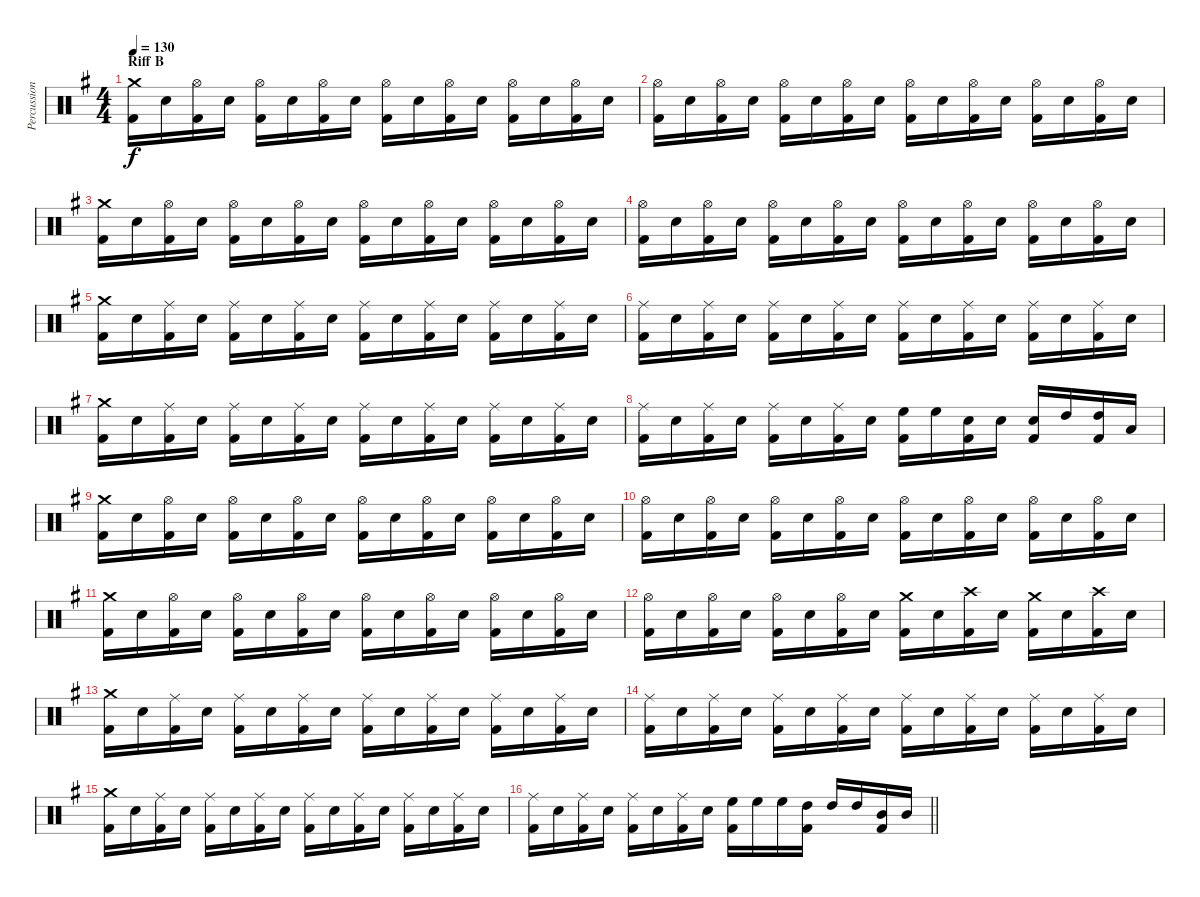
\track ("Percussion" "Percussion") {instrument percussion}
\staff {score}
\articulation defaults
\ts (4 4)
\section ("" "Riff B")
\tempo 130
\clef neutral
\ks eminor
("Crash medium (hit)" "Kick (hit) 2").16{dy f} "Snare (hit) 2".16 ("Hi-Hat (open)" "Kick (hit) 2").16 "Snare (hit) 2".16 ("Hi-Hat (open)" "Kick (hit) 2").16 "Snare (hit) 2".16 ("Hi-Hat (open)" "Kick (hit) 2").16 "Snare (hit) 2".16 ("Hi-Hat (open)" "Kick (hit) 2").16 "Snare (hit) 2".16 ("Hi-Hat (open)" "Kick (hit) 2").16 "Snare (hit) 2".16 ("Hi-Hat (open)" "Kick (hit) 2").16 "Snare (hit) 2".16 ("Hi-Hat (open)" "Kick (hit) 2").16 "Snare (hit) 2".16 |
("Hi-Hat (open)" "Kick (hit) 2").16 "Snare (hit) 2".16 ("Hi-Hat (open)" "Kick (hit) 2").16 "Snare (hit) 2".16 ("Hi-Hat (open)" "Kick (hit) 2").16 "Snare (hit) 2".16 ("Hi-Hat (open)" "Kick (hit) 2").16 "Snare (hit) 2".16 ("Hi-Hat (open)" "Kick (hit) 2").16 "Snare (hit) 2".16 ("Hi-Hat (open)" "Kick (hit) 2").16 "Snare (hit) 2".16 ("Hi-Hat (open)" "Kick (hit) 2").16 "Snare (hit) 2".16 ("Hi-Hat (open)" "Kick (hit) 2").16 "Snare (hit) 2".16 |
("Crash medium (hit)" "Kick (hit) 2").16 "Snare (hit) 2".16 ("Hi-Hat (open)" "Kick (hit) 2").16 "Snare (hit) 2".16 ("Hi-Hat (open)" "Kick (hit) 2").16 "Snare (hit) 2".16 ("Hi-Hat (open)" "Kick (hit) 2").16 "Snare (hit) 2".16 ("Hi-Hat (open)" "Kick (hit) 2").16 "Snare (hit) 2".16 ("Hi-Hat (open)" "Kick (hit) 2").16 "Snare (hit) 2".16 ("Hi-Hat (open)" "Kick (hit) 2").16 "Snare (hit) 2".16 ("Hi-Hat (open)" "Kick (hit) 2").16 "Snare (hit) 2".16 |
("Hi-Hat (open)" "Kick (hit) 2").16 "Snare (hit) 2".16 ("Hi-Hat (open)" "Kick (hit) 2").16 "Snare (hit) 2".16 ("Hi-Hat (open)" "Kick (hit) 2").16 "Snare (hit) 2".16 ("Hi-Hat (open)" "Kick (hit) 2").16 "Snare (hit) 2".16 ("Hi-Hat (open)" "Kick (hit) 2").16 "Snare (hit) 2".16 ("Hi-Hat (open)" "Kick (hit) 2").16 "Snare (hit) 2".16 ("Hi-Hat (open)" "Kick (hit) 2").16 "Snare (hit) 2".16 ("Hi-Hat (open)" "Kick (hit) 2").16 "Snare (hit) 2".16 |
("Crash medium (hit)" "Kick (hit) 2").16 "Snare (hit) 2".16 ("Ride (middle)" "Kick (hit) 2").16 "Snare (hit) 2".16 ("Ride (middle)" "Kick (hit) 2").16 "Snare (hit) 2".16 ("Ride (middle)" "Kick (hit) 2").16 "Snare (hit) 2".16 ("Ride (middle)" "Kick (hit) 2").16 "Snare (hit) 2".16 ("Ride (middle)" "Kick (hit) 2").16 "Snare (hit) 2".16 ("Ride (middle)" "Kick (hit) 2").16 "Snare (hit) 2".16 ("Ride (middle)" "Kick (hit) 2").16 "Snare (hit) 2".16 |
("Ride (middle)" "Kick (hit) 2").16 "Snare (hit) 2".16 ("Ride (middle)" "Kick (hit) 2").16 "Snare (hit) 2".16 ("Ride (middle)" "Kick (hit) 2").16 "Snare (hit) 2".16 ("Ride (middle)" "Kick (hit) 2").16 "Snare (hit) 2".16 ("Ride (middle)" "Kick (hit) 2").16 "Snare (hit) 2".16 ("Ride (middle)" "Kick (hit) 2").16 "Snare (hit) 2".16 ("Ride (middle)" "Kick (hit) 2").16 "Snare (hit) 2".16 ("Ride (middle)" "Kick (hit) 2").16 "Snare (hit) 2".16 |
("Crash medium (hit)" "Kick (hit) 2").16 "Snare (hit) 2".16 ("Ride (middle)" "Kick (hit) 2").16 "Snare (hit) 2".16 ("Ride (middle)" "Kick (hit) 2").16 "Snare (hit) 2".16 ("Ride (middle)" "Kick (hit) 2").16 "Snare (hit) 2".16 ("Ride (middle)" "Kick (hit) 2").16 "Snare (hit) 2".16 ("Ride (middle)" "Kick (hit) 2").16 "Snare (hit) 2".16 ("Ride (middle)" "Kick (hit) 2").16 "Snare (hit) 2".16 ("Ride (middle)" "Kick (hit) 2").16 "Snare (hit) 2".16 |
("Ride (middle)" "Kick (hit) 2").16 "Snare (hit) 2".16 ("Ride (middle)" "Kick (hit) 2").16 "Snare (hit) 2".16 ("Ride (middle)" "Kick (hit) 2").16 "Snare (hit) 2".16 ("Ride (middle)" "Kick (hit) 2").16 "Snare (hit) 2".16 ("High Floor Tom (hit)" "Kick (hit) 2").16 "High Floor Tom (hit)".16 ("Snare (hit) 2" "Kick (hit) 2").16 "Snare (hit) 2".16 ("Snare (hit) 2" "Kick (hit) 2").16 "High Tom (hit)".16 ("High Tom (hit)" "Kick (hit) 2").16 "Low Tom (hit)".16 |
("Crash medium (hit)" "Kick (hit) 2").16 "Snare (hit) 2".16 ("Hi-Hat (open)" "Kick (hit) 2").16 "Snare (hit) 2".16 ("Hi-Hat (open)" "Kick (hit) 2").16 "Snare (hit) 2".16 ("Hi-Hat (open)" "Kick (hit) 2").16 "Snare (hit) 2".16 ("Hi-Hat (open)" "Kick (hit) 2").16 "Snare (hit) 2".16 ("Hi-Hat (open)" "Kick (hit) 2").16 "Snare (hit) 2".16 ("Hi-Hat (open)" "Kick (hit) 2").16 "Snare (hit) 2".16 ("Hi-Hat (open)" "Kick (hit) 2").16 "Snare (hit) 2".16 |
("Hi-Hat (open)" "Kick (hit) 2").16 "Snare (hit) 2".16 ("Hi-Hat (open)" "Kick (hit) 2").16 "Snare (hit) 2".16 ("Hi-Hat (open)" "Kick (hit) 2").16 "Snare (hit) 2".16 ("Hi-Hat (open)" "Kick (hit) 2").16 "Snare (hit) 2".16 ("Hi-Hat (open)" "Kick (hit) 2").16 "Snare (hit) 2".16 ("Hi-Hat (open)" "Kick (hit) 2").16 "Snare (hit) 2".16 ("Hi-Hat (open)" "Kick (hit) 2").16 "Snare (hit) 2".16 ("Hi-Hat (open)" "Kick (hit) 2").16 "Snare (hit) 2".16 |
("Crash medium (hit)" "Kick (hit) 2").16 "Snare (hit) 2".16 ("Hi-Hat (open)" "Kick (hit) 2").16 "Snare (hit) 2".16 ("Hi-Hat (open)" "Kick (hit) 2").16 "Snare (hit) 2".16 ("Hi-Hat (open)" "Kick (hit) 2").16 "Snare (hit) 2".16 ("Hi-Hat (open)" "Kick (hit) 2").16 "Snare (hit) 2".16 ("Hi-Hat (open)" "Kick (hit) 2").16 "Snare (hit) 2".16 ("Hi-Hat (open)" "Kick (hit) 2").16 "Snare (hit) 2".16 ("Hi-Hat (open)" "Kick (hit) 2").16 "Snare (hit) 2".16 |
("Hi-Hat (open)" "Kick (hit) 2").16 "Snare (hit) 2".16 ("Hi-Hat (open)" "Kick (hit) 2").16 "Snare (hit) 2".16 ("Hi-Hat (open)" "Kick (hit) 2").16 "Snare (hit) 2".16 ("Hi-Hat (open)" "Kick (hit) 2").16 "Snare (hit) 2".16 ("Crash medium (hit)" "Kick (hit) 2").16 "Snare (hit) 2".16 ("Crash high (hit)" "Kick (hit) 2").16 "Snare (hit) 2".16 ("Crash medium (hit)" "Kick (hit) 2").16 "Snare (hit) 2".16 ("Crash high (hit)" "Kick (hit) 2").16 "Snare (hit) 2".16 |
("Crash medium (hit)" "Kick (hit) 2").16 "Snare (hit) 2".16 ("Ride (middle)" "Kick (hit) 2").16 "Snare (hit) 2".16 ("Ride (middle)" "Kick (hit) 2").16 "Snare (hit) 2".16 ("Ride (middle)" "Kick (hit) 2").16 "Snare (hit) 2".16 ("Ride (middle)" "Kick (hit) 2").16 "Snare (hit) 2".16 ("Ride (middle)" "Kick (hit) 2").16 "Snare (hit) 2".16 ("Ride (middle)" "Kick (hit) 2").16 "Snare (hit) 2".16 ("Ride (middle)" "Kick (hit) 2").16 "Snare (hit) 2".16 |
("Ride (middle)" "Kick (hit) 2").16 "Snare (hit) 2".16 ("Ride (middle)" "Kick (hit) 2").16 "Snare (hit) 2".16 ("Ride (middle)" "Kick (hit) 2").16 "Snare (hit) 2".16 ("Ride (middle)" "Kick (hit) 2").16 "Snare (hit) 2".16 ("Ride (middle)" "Kick (hit) 2").16 "Snare (hit) 2".16 ("Ride (middle)" "Kick (hit) 2").16 "Snare (hit) 2".16 ("Ride (middle)" "Kick (hit) 2").16 "Snare (hit) 2".16 ("Ride (middle)" "Kick (hit) 2").16 "Snare (hit) 2".16 |
("Crash medium (hit)" "Kick (hit) 2").16 "Snare (hit) 2".16 ("Ride (middle)" "Kick (hit) 2").16 "Snare (hit) 2".16 ("Ride (middle)" "Kick (hit) 2").16 "Snare (hit) 2".16 ("Ride (middle)" "Kick (hit) 2").16 "Snare (hit) 2".16 ("Ride (middle)" "Kick (hit) 2").16 "Snare (hit) 2".16 ("Ride (middle)" "Kick (hit) 2").16 "Snare (hit) 2".16 ("Ride (middle)" "Kick (hit) 2").16 "Snare (hit) 2".16 ("Ride (middle)" "Kick (hit) 2").16 "Snare (hit) 2".16 |
\barLineRight lightlight
("Ride (middle)" "Kick (hit) 2").16 "Snare (hit) 2".16 ("Ride (middle)" "Kick (hit) 2").16 "Snare (hit) 2".16 ("Ride (middle)" "Kick (hit) 2").16 "Snare (hit) 2".16 ("Ride (middle)" "Kick (hit) 2").16 "Snare (hit) 2".16 ("High Floor Tom (hit)" "Kick (hit) 2").16 "High Floor Tom (hit)".16 "High Floor Tom (hit)".16 ("High Tom (hit)" "Kick (hit) 2").16 "High Tom (hit)".16 "High Tom (hit)".16 ("Mid Tom (hit)" "Kick (hit) 2").16 "Mid Tom (hit)".16
